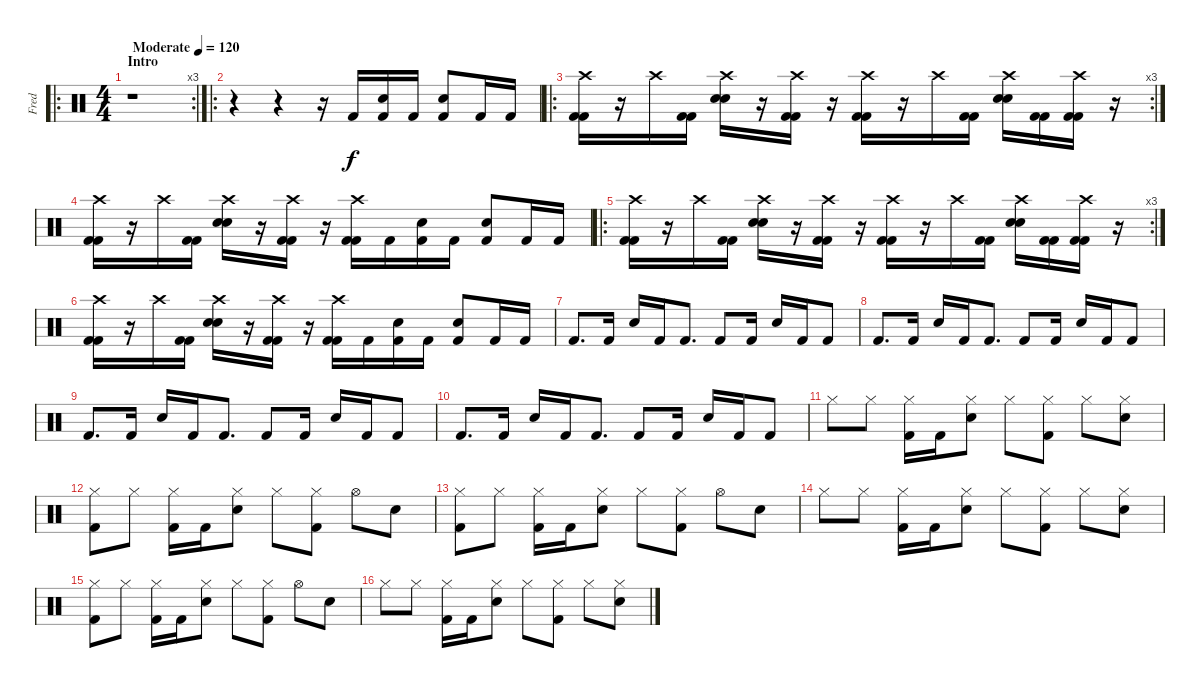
\track ("Fred " "Fred ") {instrument percussion}
\staff {score}
\articulation defaults
\ro
\rc 3
\ts (4 4)
\section ("" "Intro")
\tempo (120 "Moderate")
\clef neutral
\ks c
r.1{dy f} |
\ro
r.4 r.4 r.16 "Kick (hit) 2".16 ("Kick (hit) 2" "Electric Snare (hit)").16 "Kick (hit) 2".16 ("Kick (hit) 2" "Electric Snare (hit)").8 "Kick (hit) 2".16 "Kick (hit) 2".16 |
\ro
\rc 3
("Crash high (hit)" "Kick (hit) 2" "Kick (hit) 2").16 r.16 "Crash high (hit)".16 ("Kick (hit) 2" "Kick (hit) 2").16 ("Crash high (hit)" "Electric Snare (hit)" "Electric Snare (hit)").16 r.16 ("Crash high (hit)" "Kick (hit) 2" "Kick (hit) 2").16 r.16 ("Crash high (hit)" "Kick (hit) 2" "Kick (hit) 2").16 r.16 "Crash high (hit)".16 ("Kick (hit) 2" "Kick (hit) 2").16 ("Crash high (hit)" "Electric Snare (hit)" "Electric Snare (hit)").16 ("Kick (hit) 2" "Kick (hit) 2").16 ("Crash high (hit)" "Kick (hit) 2" "Kick (hit) 2").16 r.16 |
("Crash high (hit)" "Kick (hit) 2" "Kick (hit) 2").16 r.16 "Crash high (hit)".16 ("Kick (hit) 2" "Kick (hit) 2").16 ("Crash high (hit)" "Electric Snare (hit)" "Electric Snare (hit)").16 r.16 ("Crash high (hit)" "Kick (hit) 2" "Kick (hit) 2").16 r.16 ("Crash high (hit)" "Kick (hit) 2" "Kick (hit) 2").16 "Kick (hit) 2".16 ("Kick (hit) 2" "Electric Snare (hit)").16 "Kick (hit) 2".16 ("Kick (hit) 2" "Electric Snare (hit)").8 "Kick (hit) 2".16 "Kick (hit) 2".16 |
\ro
\rc 3
("Crash high (hit)" "Kick (hit) 2" "Kick (hit) 2").16 r.16 "Crash high (hit)".16 ("Kick (hit) 2" "Kick (hit) 2").16 ("Crash high (hit)" "Electric Snare (hit)" "Electric Snare (hit)").16 r.16 ("Crash high (hit)" "Kick (hit) 2" "Kick (hit) 2").16 r.16 ("Crash high (hit)" "Kick (hit) 2" "Kick (hit) 2").16 r.16 "Crash high (hit)".16 ("Kick (hit) 2" "Kick (hit) 2").16 ("Crash high (hit)" "Electric Snare (hit)" "Electric Snare (hit)").16 ("Kick (hit) 2" "Kick (hit) 2").16 ("Crash high (hit)" "Kick (hit) 2" "Kick (hit) 2").16 r.16 |
("Crash high (hit)" "Kick (hit) 2" "Kick (hit) 2").16 r.16 "Crash high (hit)".16 ("Kick (hit) 2" "Kick (hit) 2").16 ("Crash high (hit)" "Electric Snare (hit)" "Electric Snare (hit)").16 r.16 ("Crash high (hit)" "Kick (hit) 2" "Kick (hit) 2").16 r.16 ("Crash high (hit)" "Kick (hit) 2" "Kick (hit) 2").16 "Kick (hit) 2".16 ("Kick (hit) 2" "Electric Snare (hit)").16 "Kick (hit) 2".16 ("Kick (hit) 2" "Electric Snare (hit)").8 "Kick (hit) 2".16 "Kick (hit) 2".16 |
"Kick (hit) 2".8{d} "Kick (hit) 2".16 "Electric Snare (hit)".16 "Kick (hit) 2".16 "Kick (hit) 2".8{d} "Kick (hit) 2".8 "Kick (hit) 2".16 "Electric Snare (hit)".16 "Kick (hit) 2".16 "Kick (hit) 2".8 |
"Kick (hit) 2".8{d} "Kick (hit) 2".16 "Electric Snare (hit)".16 "Kick (hit) 2".16 "Kick (hit) 2".8{d} "Kick (hit) 2".8 "Kick (hit) 2".16 "Electric Snare (hit)".16 "Kick (hit) 2".16 "Kick (hit) 2".8 |
"Kick (hit) 2".8{d} "Kick (hit) 2".16 "Electric Snare (hit)".16 "Kick (hit) 2".16 "Kick (hit) 2".8{d} "Kick (hit) 2".8 "Kick (hit) 2".16 "Electric Snare (hit)".16 "Kick (hit) 2".16 "Kick (hit) 2".8 |
"Kick (hit) 2".8{d} "Kick (hit) 2".16 "Electric Snare (hit)".16 "Kick (hit) 2".16 "Kick (hit) 2".8{d} "Kick (hit) 2".8 "Kick (hit) 2".16 "Electric Snare (hit)".16 "Kick (hit) 2".16 "Kick (hit) 2".8 |
"Hi-Hat (closed)".8 "Hi-Hat (closed)".8 ("Hi-Hat (closed)" "Kick (hit) 2").16 "Kick (hit) 2".16 ("Hi-Hat (closed)" "Electric Snare (hit)").8 "Hi-Hat (closed)".8 ("Hi-Hat (closed)" "Kick (hit) 2").8 "Hi-Hat (closed)".8 ("Hi-Hat (closed)" "Electric Snare (hit)").8 |
("Hi-Hat (closed)" "Kick (hit) 2").8 "Hi-Hat (closed)".8 ("Hi-Hat (closed)" "Kick (hit) 2").16 "Kick (hit) 2".16 ("Hi-Hat (closed)" "Electric Snare (hit)").8 "Hi-Hat (closed)".8 ("Hi-Hat (closed)" "Kick (hit) 2").8 "Hi-Hat (open)".8 "Electric Snare (hit)".8 |
("Hi-Hat (closed)" "Kick (hit) 2").8 "Hi-Hat (closed)".8 ("Hi-Hat (closed)" "Kick (hit) 2").16 "Kick (hit) 2".16 ("Hi-Hat (closed)" "Electric Snare (hit)").8 "Hi-Hat (closed)".8 ("Hi-Hat (closed)" "Kick (hit) 2").8 "Hi-Hat (open)".8 "Electric Snare (hit)".8 |
"Hi-Hat (closed)".8 "Hi-Hat (closed)".8 ("Hi-Hat (closed)" "Kick (hit) 2").16 "Kick (hit) 2".16 ("Hi-Hat (closed)" "Electric Snare (hit)").8 "Hi-Hat (closed)".8 ("Hi-Hat (closed)" "Kick (hit) 2").8 "Hi-Hat (closed)".8 ("Hi-Hat (closed)" "Electric Snare (hit)").8 |
("Hi-Hat (closed)" "Kick (hit) 2").8 "Hi-Hat (closed)".8 ("Hi-Hat (closed)" "Kick (hit) 2").16 "Kick (hit) 2".16 ("Hi-Hat (closed)" "Electric Snare (hit)").8 "Hi-Hat (closed)".8 ("Hi-Hat (closed)" "Kick (hit) 2").8 "Hi-Hat (open)".8 "Electric Snare (hit)".8 |
"Hi-Hat (closed)".8 "Hi-Hat (closed)".8 ("Hi-Hat (closed)" "Kick (hit) 2").16 "Kick (hit) 2".16 ("Hi-Hat (closed)" "Electric Snare (hit)").8 "Hi-Hat (closed)".8 ("Hi-Hat (closed)" "Kick (hit) 2").8 "Hi-Hat (closed)".8 ("Hi-Hat (closed)" "Electric Snare (hit)").8
